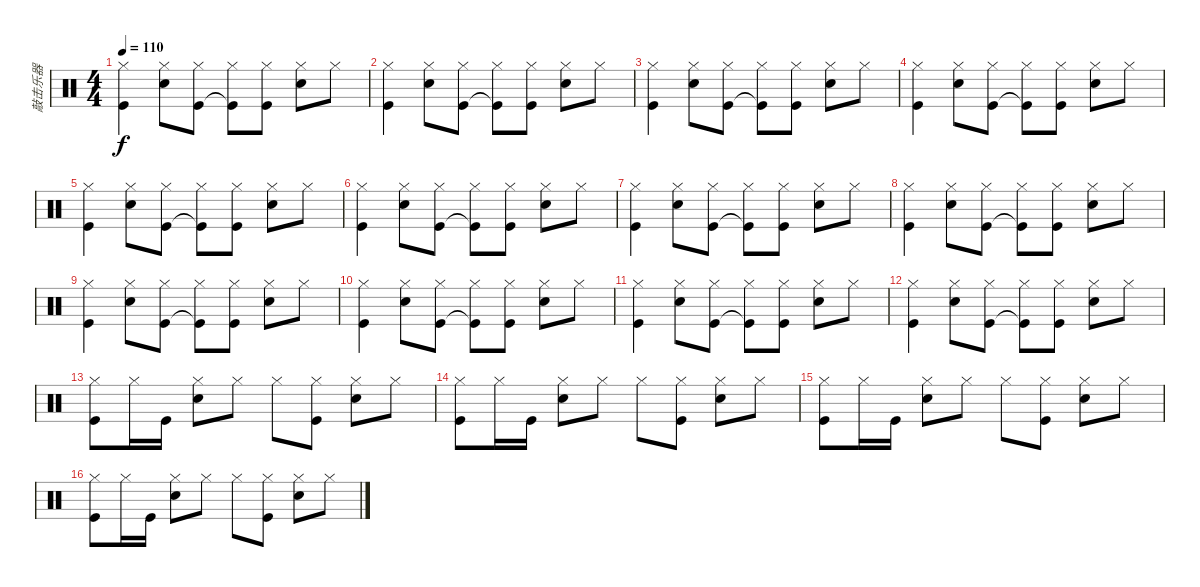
\track ("敲击乐器" "敲击乐器") {instrument percussion}
\staff {score}
\articulation defaults
\ts (4 4)
\tempo 110
\clef neutral
\ks c
("Hi-Hat (closed)" "Kick (hit)").4{dy f} ("Hi-Hat (closed)" "Snare (hit) 2").8 ("Hi-Hat (closed)" "Kick (hit)").8 ("Hi-Hat (closed)" "Kick (hit)"{t}).8 ("Kick (hit)" "Hi-Hat (closed)").8 ("Snare (hit) 2" "Hi-Hat (closed)").8 "Hi-Hat (closed)".8 |
("Hi-Hat (closed)" "Kick (hit)").4 ("Hi-Hat (closed)" "Snare (hit) 2").8 ("Hi-Hat (closed)" "Kick (hit)").8 ("Hi-Hat (closed)" "Kick (hit)"{t}).8 ("Kick (hit)" "Hi-Hat (closed)").8 ("Snare (hit) 2" "Hi-Hat (closed)").8 "Hi-Hat (closed)".8 |
("Hi-Hat (closed)" "Kick (hit)").4 ("Hi-Hat (closed)" "Snare (hit) 2").8 ("Hi-Hat (closed)" "Kick (hit)").8 ("Hi-Hat (closed)" "Kick (hit)"{t}).8 ("Kick (hit)" "Hi-Hat (closed)").8 ("Snare (hit) 2" "Hi-Hat (closed)").8 "Hi-Hat (closed)".8 |
("Hi-Hat (closed)" "Kick (hit)").4 ("Hi-Hat (closed)" "Snare (hit) 2").8 ("Hi-Hat (closed)" "Kick (hit)").8 ("Hi-Hat (closed)" "Kick (hit)"{t}).8 ("Kick (hit)" "Hi-Hat (closed)").8 ("Snare (hit) 2" "Hi-Hat (closed)").8 "Hi-Hat (closed)".8 |
("Hi-Hat (closed)" "Kick (hit)").4 ("Hi-Hat (closed)" "Snare (hit) 2").8 ("Hi-Hat (closed)" "Kick (hit)").8 ("Hi-Hat (closed)" "Kick (hit)"{t}).8 ("Kick (hit)" "Hi-Hat (closed)").8 ("Snare (hit) 2" "Hi-Hat (closed)").8 "Hi-Hat (closed)".8 |
("Hi-Hat (closed)" "Kick (hit)").4 ("Hi-Hat (closed)" "Snare (hit) 2").8 ("Hi-Hat (closed)" "Kick (hit)").8 ("Hi-Hat (closed)" "Kick (hit)"{t}).8 ("Kick (hit)" "Hi-Hat (closed)").8 ("Snare (hit) 2" "Hi-Hat (closed)").8 "Hi-Hat (closed)".8 |
("Hi-Hat (closed)" "Kick (hit)").4 ("Hi-Hat (closed)" "Snare (hit) 2").8 ("Hi-Hat (closed)" "Kick (hit)").8 ("Hi-Hat (closed)" "Kick (hit)"{t}).8 ("Kick (hit)" "Hi-Hat (closed)").8 ("Snare (hit) 2" "Hi-Hat (closed)").8 "Hi-Hat (closed)".8 |
("Hi-Hat (closed)" "Kick (hit)").4 ("Hi-Hat (closed)" "Snare (hit) 2").8 ("Hi-Hat (closed)" "Kick (hit)").8 ("Hi-Hat (closed)" "Kick (hit)"{t}).8 ("Kick (hit)" "Hi-Hat (closed)").8 ("Snare (hit) 2" "Hi-Hat (closed)").8 "Hi-Hat (closed)".8 |
("Hi-Hat (closed)" "Kick (hit)").4 ("Hi-Hat (closed)" "Snare (hit) 2").8 ("Hi-Hat (closed)" "Kick (hit)").8 ("Hi-Hat (closed)" "Kick (hit)"{t}).8 ("Kick (hit)" "Hi-Hat (closed)").8 ("Snare (hit) 2" "Hi-Hat (closed)").8 "Hi-Hat (closed)".8 |
("Hi-Hat (closed)" "Kick (hit)").4 ("Hi-Hat (closed)" "Snare (hit) 2").8 ("Hi-Hat (closed)" "Kick (hit)").8 ("Hi-Hat (closed)" "Kick (hit)"{t}).8 ("Kick (hit)" "Hi-Hat (closed)").8 ("Snare (hit) 2" "Hi-Hat (closed)").8 "Hi-Hat (closed)".8 |
("Hi-Hat (closed)" "Kick (hit)").4 ("Hi-Hat (closed)" "Snare (hit) 2").8 ("Hi-Hat (closed)" "Kick (hit)").8 ("Hi-Hat (closed)" "Kick (hit)"{t}).8 ("Kick (hit)" "Hi-Hat (closed)").8 ("Snare (hit) 2" "Hi-Hat (closed)").8 "Hi-Hat (closed)".8 |
("Hi-Hat (closed)" "Kick (hit)").4 ("Hi-Hat (closed)" "Snare (hit) 2").8 ("Hi-Hat (closed)" "Kick (hit)").8 ("Hi-Hat (closed)" "Kick (hit)"{t}).8 ("Kick (hit)" "Hi-Hat (closed)").8 ("Snare (hit) 2" "Hi-Hat (closed)").8 "Hi-Hat (closed)".8 |
("Hi-Hat (closed)" "Kick (hit)").8 "Hi-Hat (closed)".16 "Kick (hit)".16 ("Hi-Hat (closed)" "Snare (hit) 2").8 "Hi-Hat (closed)".8 "Hi-Hat (closed)".8 ("Hi-Hat (closed)" "Kick (hit)").8 ("Snare (hit) 2" "Hi-Hat (closed)").8 "Hi-Hat (closed)".8 |
("Hi-Hat (closed)" "Kick (hit)").8 "Hi-Hat (closed)".16 "Kick (hit)".16 ("Hi-Hat (closed)" "Snare (hit) 2").8 "Hi-Hat (closed)".8 "Hi-Hat (closed)".8 ("Hi-Hat (closed)" "Kick (hit)").8 ("Snare (hit) 2" "Hi-Hat (closed)").8 "Hi-Hat (closed)".8 |
("Hi-Hat (closed)" "Kick (hit)").8 "Hi-Hat (closed)".16 "Kick (hit)".16 ("Hi-Hat (closed)" "Snare (hit) 2").8 "Hi-Hat (closed)".8 "Hi-Hat (closed)".8 ("Hi-Hat (closed)" "Kick (hit)").8 ("Snare (hit) 2" "Hi-Hat (closed)").8 "Hi-Hat (closed)".8 |
("Hi-Hat (closed)" "Kick (hit)").8 "Hi-Hat (closed)".16 "Kick (hit)".16 ("Hi-Hat (closed)" "Snare (hit) 2").8 "Hi-Hat (closed)".8 "Hi-Hat (closed)".8 ("Hi-Hat (closed)" "Kick (hit)").8 ("Snare (hit) 2" "Hi-Hat (closed)").8 "Hi-Hat (closed)".8
